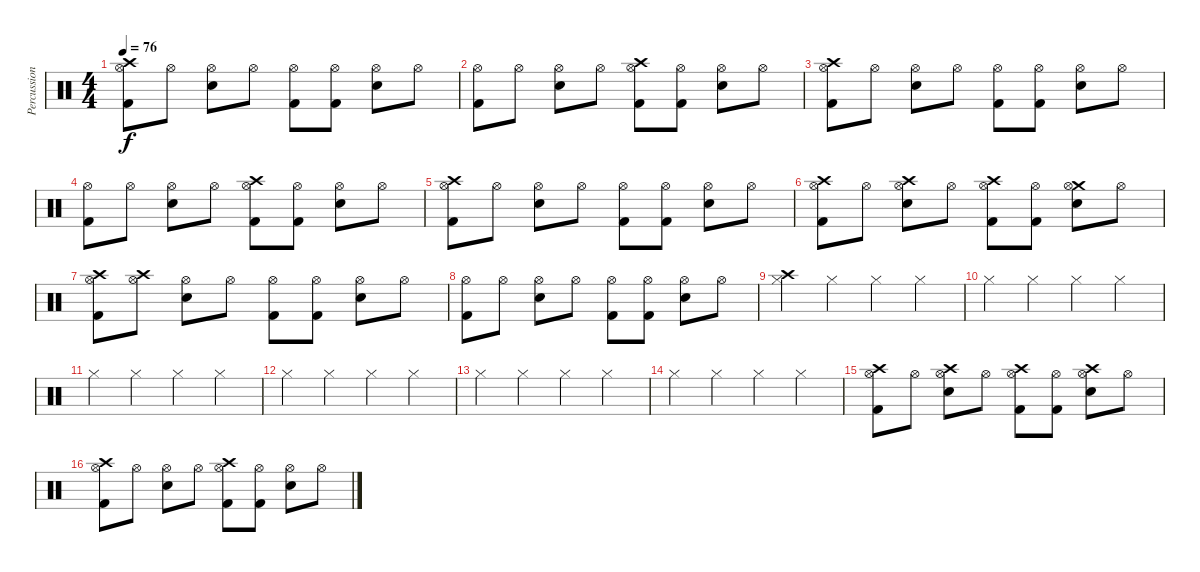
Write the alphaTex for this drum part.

\track ("Percussions" "Percussion") {instrument percussion}
\staff {score}
\articulation defaults
\ts (4 4)
\tempo 76
\clef neutral
\ks c
("Crash high (hit)" "Kick (hit) 2" "Hi-Hat (open)").8{dy f} "Hi-Hat (open)".8 ("Hi-Hat (open)" "Snare (hit) 2").8 "Hi-Hat (open)".8 ("Kick (hit) 2" "Hi-Hat (open)").8 ("Kick (hit) 2" "Hi-Hat (open)").8 ("Hi-Hat (open)" "Snare (hit) 2").8 "Hi-Hat (open)".8 |
("Kick (hit) 2" "Hi-Hat (open)").8 "Hi-Hat (open)".8 ("Hi-Hat (open)" "Snare (hit) 2").8 "Hi-Hat (open)".8 ("Crash high (hit)" "Kick (hit) 2" "Hi-Hat (open)").8 ("Kick (hit) 2" "Hi-Hat (open)").8 ("Hi-Hat (open)" "Snare (hit) 2").8 "Hi-Hat (open)".8 |
("Crash high (hit)" "Kick (hit) 2" "Hi-Hat (open)").8 "Hi-Hat (open)".8 ("Hi-Hat (open)" "Snare (hit) 2").8 "Hi-Hat (open)".8 ("Kick (hit) 2" "Hi-Hat (open)").8 ("Kick (hit) 2" "Hi-Hat (open)").8 ("Hi-Hat (open)" "Snare (hit) 2").8 "Hi-Hat (open)".8 |
("Kick (hit) 2" "Hi-Hat (open)").8 "Hi-Hat (open)".8 ("Hi-Hat (open)" "Snare (hit) 2").8 "Hi-Hat (open)".8 ("Crash high (hit)" "Kick (hit) 2" "Hi-Hat (open)").8 ("Kick (hit) 2" "Hi-Hat (open)").8 ("Hi-Hat (open)" "Snare (hit) 2").8 "Hi-Hat (open)".8 |
("Crash high (hit)" "Kick (hit) 2" "Hi-Hat (open)").8 "Hi-Hat (open)".8 ("Hi-Hat (open)" "Snare (hit) 2").8 "Hi-Hat (open)".8 ("Kick (hit) 2" "Hi-Hat (open)").8 ("Kick (hit) 2" "Hi-Hat (open)").8 ("Hi-Hat (open)" "Snare (hit) 2").8 "Hi-Hat (open)".8 |
("Crash high (hit)" "Kick (hit) 2" "Hi-Hat (open)").8 "Hi-Hat (open)".8 ("Crash high (hit)" "Hi-Hat (open)" "Snare (hit) 2").8 "Hi-Hat (open)".8 ("Crash high (hit)" "Kick (hit) 2" "Hi-Hat (open)").8 ("Kick (hit) 2" "Hi-Hat (open)").8 ("Crash medium (hit)" "Hi-Hat (open)" "Snare (hit) 2").8 "Hi-Hat (open)".8 |
("Crash high (hit)" "Kick (hit) 2" "Hi-Hat (open)").8 ("Crash high (hit)" "Hi-Hat (open)").8 ("Hi-Hat (open)" "Snare (hit) 2").8 "Hi-Hat (open)".8 ("Kick (hit) 2" "Hi-Hat (open)").8 ("Kick (hit) 2" "Hi-Hat (open)").8 ("Hi-Hat (open)" "Snare (hit) 2").8 "Hi-Hat (open)".8 |
("Kick (hit) 2" "Hi-Hat (open)").8 "Hi-Hat (open)".8 ("Hi-Hat (open)" "Snare (hit) 2").8 "Hi-Hat (open)".8 ("Kick (hit) 2" "Hi-Hat (open)").8 ("Kick (hit) 2" "Hi-Hat (open)").8 ("Hi-Hat (open)" "Snare (hit) 2").8 "Hi-Hat (open)".8 |
("Crash high (hit)" "Hi-Hat (closed)").4 "Hi-Hat (closed)".4 "Hi-Hat (closed)".4 "Hi-Hat (closed)".4 |
"Hi-Hat (closed)".4 "Hi-Hat (closed)".4 "Hi-Hat (closed)".4 "Hi-Hat (closed)".4 |
"Hi-Hat (closed)".4 "Hi-Hat (closed)".4 "Hi-Hat (closed)".4 "Hi-Hat (closed)".4 |
"Hi-Hat (closed)".4 "Hi-Hat (closed)".4 "Hi-Hat (closed)".4 "Hi-Hat (closed)".4 |
"Hi-Hat (closed)".4 "Hi-Hat (closed)".4 "Hi-Hat (closed)".4 "Hi-Hat (closed)".4 |
"Hi-Hat (closed)".4 "Hi-Hat (closed)".4 "Hi-Hat (closed)".4 "Hi-Hat (closed)".4 |
("Crash high (hit)" "Kick (hit) 2" "Hi-Hat (open)").8 "Hi-Hat (open)".8 ("Crash high (hit)" "Hi-Hat (open)" "Snare (hit) 2").8 "Hi-Hat (open)".8 ("Crash high (hit)" "Kick (hit) 2" "Hi-Hat (open)").8 ("Kick (hit) 2" "Hi-Hat (open)").8 ("Crash high (hit)" "Hi-Hat (open)" "Snare (hit) 2").8 "Hi-Hat (open)".8 |
("Crash high (hit)" "Kick (hit) 2" "Hi-Hat (open)").8 "Hi-Hat (open)".8 ("Hi-Hat (open)" "Snare (hit) 2").8 "Hi-Hat (open)".8 ("Crash high (hit)" "Kick (hit) 2" "Hi-Hat (open)").8 ("Kick (hit) 2" "Hi-Hat (open)").8 ("Hi-Hat (open)" "Snare (hit) 2").8 "Hi-Hat (open)".8
